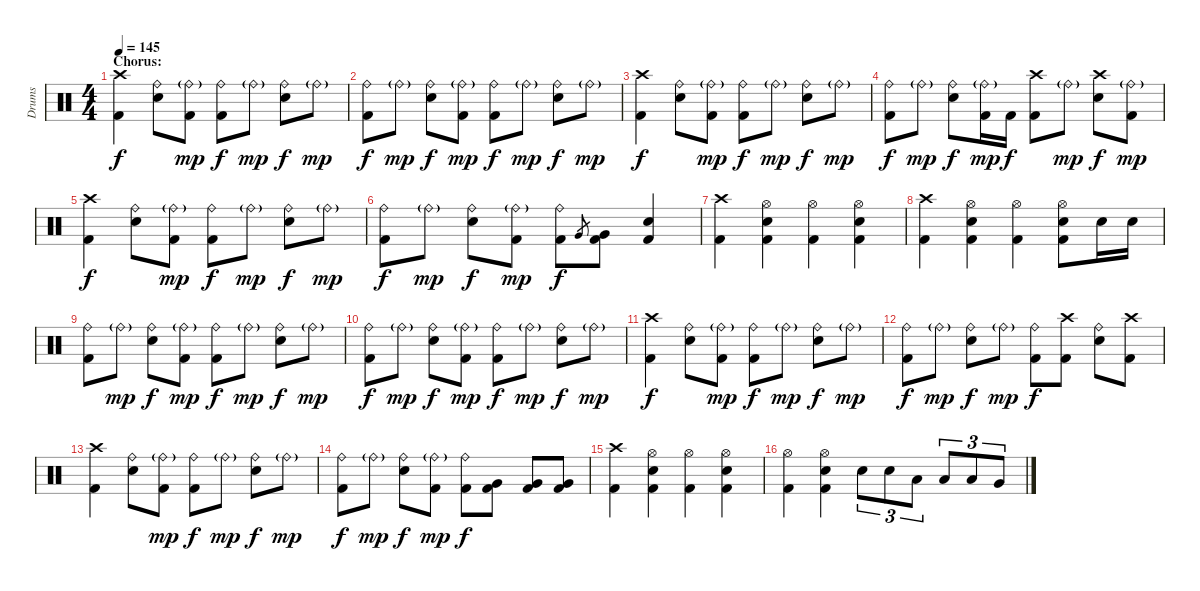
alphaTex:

\track ("Drums" "Drums") {instrument percussion}
\staff {score}
\articulation defaults
\ts (4 4)
\section ("" "Chorus:")
\tempo 145
\clef neutral
\ks c
("Crash high (hit)" "Kick (hit) 2").4{dy f} ("Ride (bell)" "Electric Snare (hit)").8 ("Ride (bell)"{g} "Kick (hit) 2").8{dy mp} ("Ride (bell)" "Kick (hit) 2").8{dy f} "Ride (bell)"{g}.8{dy mp} ("Ride (bell)" "Electric Snare (hit)").8{dy f} "Ride (bell)"{g}.8{dy mp} |
("Ride (bell)" "Kick (hit) 2").8{dy f} "Ride (bell)"{g}.8{dy mp} ("Ride (bell)" "Electric Snare (hit)").8{dy f} ("Ride (bell)"{g} "Kick (hit) 2").8{dy mp} ("Ride (bell)" "Kick (hit) 2").8{dy f} "Ride (bell)"{g}.8{dy mp} ("Ride (bell)" "Electric Snare (hit)").8{dy f} "Ride (bell)"{g}.8{dy mp} |
("Crash high (hit)" "Kick (hit) 2").4{dy f} ("Ride (bell)" "Electric Snare (hit)").8 ("Ride (bell)"{g} "Kick (hit) 2").8{dy mp} ("Ride (bell)" "Kick (hit) 2").8{dy f} "Ride (bell)"{g}.8{dy mp} ("Ride (bell)" "Electric Snare (hit)").8{dy f} "Ride (bell)"{g}.8{dy mp} |
("Ride (bell)" "Kick (hit) 2").8{dy f} "Ride (bell)"{g}.8{dy mp} ("Ride (bell)" "Electric Snare (hit)").8{dy f} ("Ride (bell)"{g} "Kick (hit) 2").16{dy mp} "Kick (hit) 2".16{dy f} ("Crash high (hit)" "Kick (hit) 2").8 "Ride (bell)"{g}.8{dy mp} ("Crash high (hit)" "Electric Snare (hit)").8{dy f} ("Ride (bell)"{g} "Kick (hit) 2").8{dy mp} |
("Crash high (hit)" "Kick (hit) 2").4{dy f} ("Ride (bell)" "Electric Snare (hit)").8 ("Ride (bell)"{g} "Kick (hit) 2").8{dy mp} ("Ride (bell)" "Kick (hit) 2").8{dy f} "Ride (bell)"{g}.8{dy mp} ("Ride (bell)" "Electric Snare (hit)").8{dy f} "Ride (bell)"{g}.8{dy mp} |
("Ride (bell)" "Kick (hit) 2").8{dy f} "Ride (bell)"{g}.8{dy mp} ("Ride (bell)" "Electric Snare (hit)").8{dy f} ("Ride (bell)"{g} "Kick (hit) 2").8{dy mp} ("Ride (bell)" "Kick (hit) 2").8{dy f} "Very Low Tom (hit)".8{gr} ("Very Low Tom (hit)" "Kick (hit) 2").8 ("Electric Snare (hit)" "Kick (hit) 2").4 |
("Crash high (hit)" "Kick (hit) 2").4 ("Hi-Hat (open)" "Electric Snare (hit)" "Kick (hit) 2").4 ("Hi-Hat (open)" "Kick (hit) 2").4 ("Hi-Hat (open)" "Electric Snare (hit)" "Kick (hit) 2").4 |
("Crash high (hit)" "Kick (hit) 2").4 ("Hi-Hat (open)" "Electric Snare (hit)" "Kick (hit) 2").4 ("Hi-Hat (open)" "Kick (hit) 2").4 ("Hi-Hat (open)" "Electric Snare (hit)" "Kick (hit) 2").8 "Electric Snare (hit)".16 "Electric Snare (hit)".16 |
("Ride (bell)" "Kick (hit) 2").8 "Ride (bell)"{g}.8{dy mp} ("Ride (bell)" "Electric Snare (hit)").8{dy f} ("Ride (bell)"{g} "Kick (hit) 2").8{dy mp} ("Ride (bell)" "Kick (hit) 2").8{dy f} "Ride (bell)"{g}.8{dy mp} ("Ride (bell)" "Electric Snare (hit)").8{dy f} "Ride (bell)"{g}.8{dy mp} |
("Ride (bell)" "Kick (hit) 2").8{dy f} "Ride (bell)"{g}.8{dy mp} ("Ride (bell)" "Electric Snare (hit)").8{dy f} ("Ride (bell)"{g} "Kick (hit) 2").8{dy mp} ("Ride (bell)" "Kick (hit) 2").8{dy f} "Ride (bell)"{g}.8{dy mp} ("Ride (bell)" "Electric Snare (hit)").8{dy f} "Ride (bell)"{g}.8{dy mp} |
("Crash high (hit)" "Kick (hit) 2").4{dy f} ("Ride (bell)" "Electric Snare (hit)").8 ("Ride (bell)"{g} "Kick (hit) 2").8{dy mp} ("Ride (bell)" "Kick (hit) 2").8{dy f} "Ride (bell)"{g}.8{dy mp} ("Ride (bell)" "Electric Snare (hit)").8{dy f} "Ride (bell)"{g}.8{dy mp} |
("Ride (bell)" "Kick (hit) 2").8{dy f} "Ride (bell)"{g}.8{dy mp} ("Ride (bell)" "Electric Snare (hit)").8{dy f} "Ride (bell)"{g}.8{dy mp} ("Ride (bell)" "Kick (hit) 2").8{dy f} ("Crash high (hit)" "Kick (hit) 2").8 ("Ride (bell)" "Electric Snare (hit)").8 ("Crash high (hit)" "Kick (hit) 2").8 |
("Crash high (hit)" "Kick (hit) 2").4 ("Ride (bell)" "Electric Snare (hit)").8 ("Ride (bell)"{g} "Kick (hit) 2").8{dy mp} ("Ride (bell)" "Kick (hit) 2").8{dy f} "Ride (bell)"{g}.8{dy mp} ("Ride (bell)" "Electric Snare (hit)").8{dy f} "Ride (bell)"{g}.8{dy mp} |
("Ride (bell)" "Kick (hit) 2").8{dy f} "Ride (bell)"{g}.8{dy mp} ("Ride (bell)" "Electric Snare (hit)").8{dy f} ("Ride (bell)"{g} "Kick (hit) 2").8{dy mp} ("Ride (bell)" "Kick (hit) 2").8{dy f} ("Very Low Tom (hit)" "Kick (hit) 2").8 ("Very Low Tom (hit)" "Kick (hit) 2").8 ("Very Low Tom (hit)" "Kick (hit) 2").8 |
("Crash high (hit)" "Kick (hit) 2").4 ("Hi-Hat (open)" "Electric Snare (hit)" "Kick (hit) 2").4 ("Hi-Hat (open)" "Kick (hit) 2").4 ("Hi-Hat (open)" "Electric Snare (hit)" "Kick (hit) 2").4 |
("Hi-Hat (open)" "Kick (hit) 2").4 ("Hi-Hat (open)" "Electric Snare (hit)" "Kick (hit) 2").4 "Electric Snare (hit)".8{tu (3 2)} "Electric Snare (hit)".8{tu (3 2)} "Low Tom (hit)".8{tu (3 2)} "Low Tom (hit)".8{tu (3 2)} "Low Tom (hit)".8{tu (3 2)} "Very Low Tom (hit)".8{tu (3 2)}
